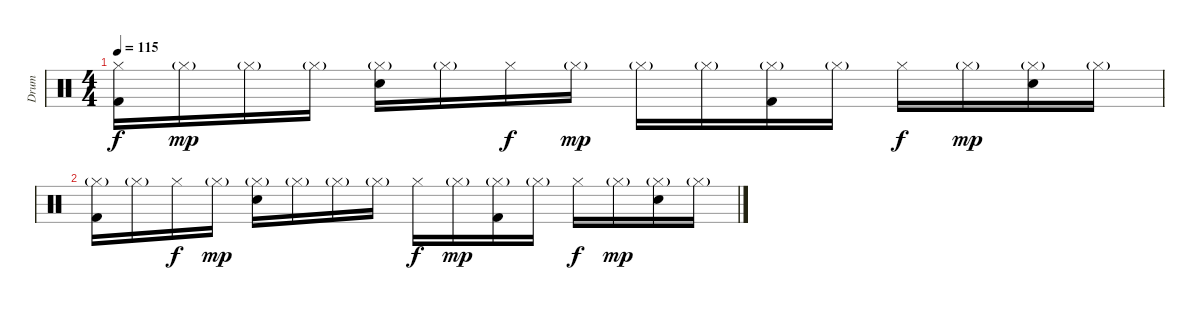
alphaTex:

\track ("Drum" "Drum") {instrument percussion}
\staff {score}
\articulation defaults
\ts (4 4)
\tempo 115
\clef neutral
\ks c
("Kick (hit) 2" "Hi-Hat (closed)").16{dy f} "Hi-Hat (closed)"{g}.16{dy mp} "Hi-Hat (closed)"{g}.16 "Hi-Hat (closed)"{g}.16 ("Electric Snare (hit)" "Hi-Hat (closed)"{g}).16 "Hi-Hat (closed)"{g}.16 "Hi-Hat (closed)".16{dy f} "Hi-Hat (closed)"{g}.16{dy mp} "Hi-Hat (closed)"{g}.16 "Hi-Hat (closed)"{g}.16 ("Kick (hit) 2" "Hi-Hat (closed)"{g}).16 "Hi-Hat (closed)"{g}.16 "Hi-Hat (closed)".16{dy f} "Hi-Hat (closed)"{g}.16{dy mp} ("Electric Snare (hit)" "Hi-Hat (closed)"{g}).16 "Hi-Hat (closed)"{g}.16 |
("Kick (hit) 2" "Hi-Hat (closed)"{g}).16 "Hi-Hat (closed)"{g}.16 "Hi-Hat (closed)".16{dy f} "Hi-Hat (closed)"{g}.16{dy mp} ("Electric Snare (hit)" "Hi-Hat (closed)"{g}).16 "Hi-Hat (closed)"{g}.16 "Hi-Hat (closed)"{g}.16 "Hi-Hat (closed)"{g}.16 "Hi-Hat (closed)".16{dy f} "Hi-Hat (closed)"{g}.16{dy mp} ("Kick (hit) 2" "Hi-Hat (closed)"{g}).16 "Hi-Hat (closed)"{g}.16 "Hi-Hat (closed)".16{dy f} "Hi-Hat (closed)"{g}.16{dy mp} ("Electric Snare (hit)" "Hi-Hat (closed)"{g}).16 "Hi-Hat (closed)"{g}.16
